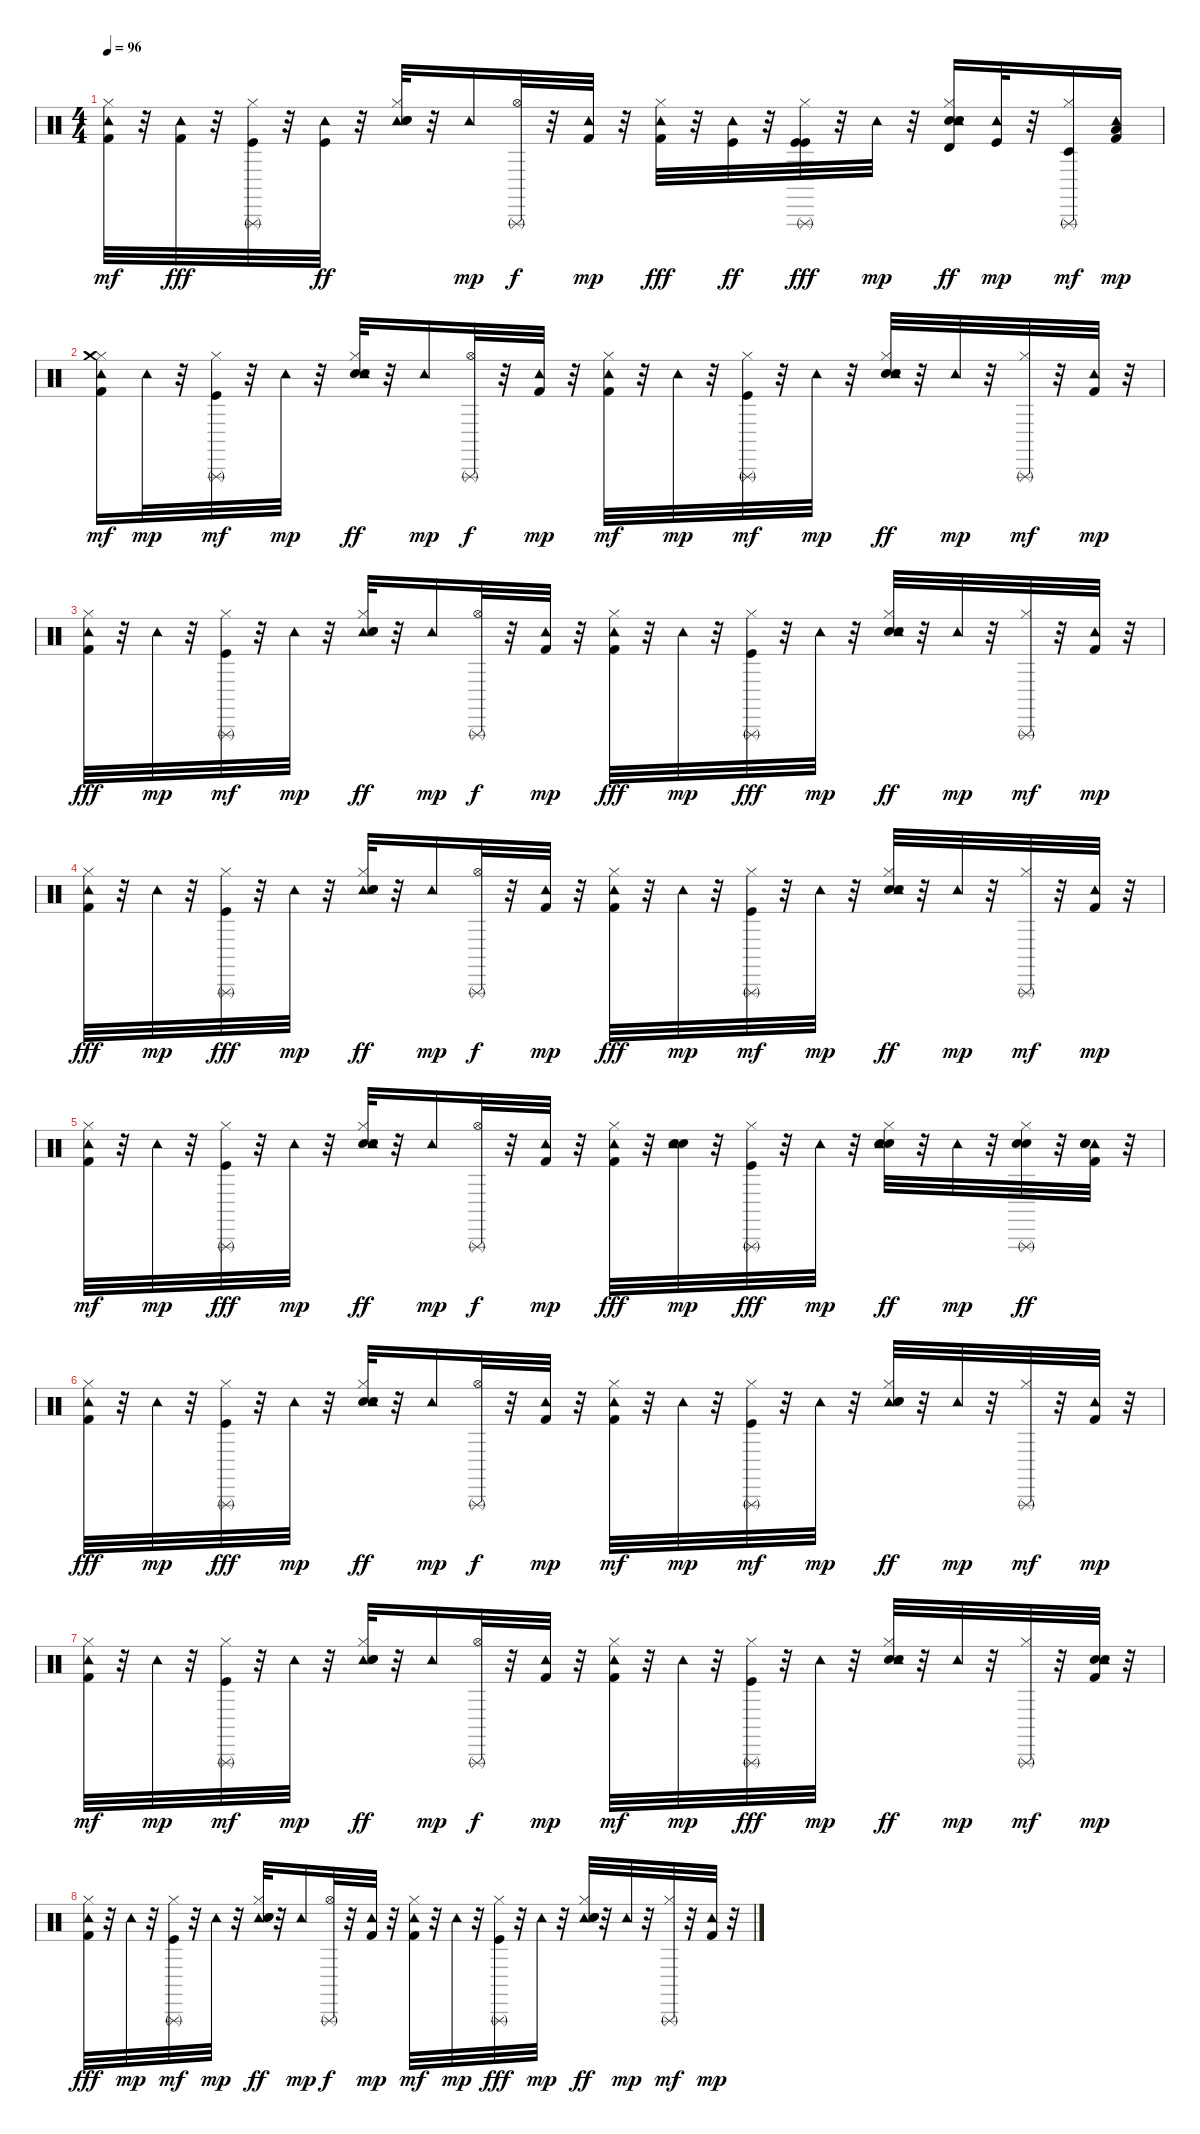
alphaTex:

\track "" {instrument percussion}
\staff {score}
\articulation defaults
\ts (4 4)
\tempo 96
\clef neutral
\ks c
("Kick (hit) 2" "Tambourine (hit)" "Hi-Hat (closed)").32{dy mf} r.32 ("Tambourine (hit)" "Kick (hit) 2").32{dy fff} r.32 ("Triangle (rnute)" "Hi-Hat (closed)" "Kick (hit)").32 r.32 ("Tambourine (hit)" "Kick (hit)").32{dy ff} r.32 ("Hi-Hat (closed)" "Tambourine (hit)" "Electric Snare (hit)" "Hand Clap (hit)").32 r.32 "Tambourine (hit)".16{dy mp} ("Triangle (rnute)" "Hi-Hat (open)").32{dy f} r.32 ("Tambourine (hit)" "Kick (hit) 2").32{dy mp} r.32 ("Tambourine (hit)" "Hi-Hat (closed)" "Kick (hit) 2").32{dy fff} r.32 ("Tambourine (hit)" "Kick (hit)").32{dy ff} r.32 ("Hi-Hat (closed)" "Kick (hit)" "Triangle (rnute)" "Kick (hit)").32{dy fff} r.32 "Tambourine (hit)".32{dy mp} r.32 ("Electric Snare (hit)" "Tambourine (hit)" "Timbale high (hit)" "Hi-Hat (closed)" "Hand Clap (hit)").16{dy ff} ("Kick (hit)" "Tambourine (hit)").32{dy mp} r.32 ("Triangle (rnute)" "Timbale low (hit)" "Hi-Hat (closed)").16{dy mf} ("Kick (hit) 2" "Low Tom (hit)" "Tambourine (hit)").16{dy mp} |
("Kick (hit) 2" "Tambourine (hit)" "Hi-Hat (closed)" "Crash medium (hit)").16{dy mf} "Tambourine (hit)".32{dy mp} r.32 ("Kick (hit)" "Triangle (rnute)" "Hi-Hat (closed)").32{dy mf} r.32 "Tambourine (hit)".32{dy mp} r.32 ("Electric Snare (hit)" "Hi-Hat (closed)" "Tambourine (hit)" "Hand Clap (hit)").32{dy ff} r.32 "Tambourine (hit)".16{dy mp} ("Triangle (rnute)" "Hi-Hat (open)").32{dy f} r.32 ("Tambourine (hit)" "Kick (hit) 2").32{dy mp} r.32 ("Kick (hit) 2" "Tambourine (hit)" "Hi-Hat (closed)").32{dy mf} r.32 "Tambourine (hit)".32{dy mp} r.32 ("Triangle (rnute)" "Kick (hit)" "Hi-Hat (closed)").32{dy mf} r.32 "Tambourine (hit)".32{dy mp} r.32 ("Electric Snare (hit)" "Tambourine (hit)" "Hi-Hat (closed)" "Hand Clap (hit)").32{dy ff} r.32 "Tambourine (hit)".32{dy mp} r.32 ("Triangle (rnute)" "Hi-Hat (closed)").32{dy mf} r.32 ("Kick (hit) 2" "Tambourine (hit)").32{dy mp} r.32 |
("Hi-Hat (closed)" "Tambourine (hit)" "Kick (hit) 2").32{dy fff} r.32 "Tambourine (hit)".32{dy mp} r.32 ("Kick (hit)" "Hi-Hat (closed)" "Triangle (rnute)").32{dy mf} r.32 "Tambourine (hit)".32{dy mp} r.32 ("Tambourine (hit)" "Electric Snare (hit)" "Hi-Hat (closed)" "Hand Clap (hit)").32{dy ff} r.32 "Tambourine (hit)".16{dy mp} ("Triangle (rnute)" "Hi-Hat (open)").32{dy f} r.32 ("Kick (hit) 2" "Tambourine (hit)").32{dy mp} r.32 ("Tambourine (hit)" "Hi-Hat (closed)" "Kick (hit) 2").32{dy fff} r.32 "Tambourine (hit)".32{dy mp} r.32 ("Triangle (rnute)" "Hi-Hat (closed)" "Kick (hit)").32{dy fff} r.32 "Tambourine (hit)".32{dy mp} r.32 ("Hi-Hat (closed)" "Electric Snare (hit)" "Tambourine (hit)" "Hand Clap (hit)").32{dy ff} r.32 "Tambourine (hit)".32{dy mp} r.32 ("Triangle (rnute)" "Hi-Hat (closed)").32{dy mf} r.32 ("Kick (hit) 2" "Tambourine (hit)").32{dy mp} r.32 |
("Tambourine (hit)" "Hi-Hat (closed)" "Kick (hit) 2").32{dy fff} r.32 "Tambourine (hit)".32{dy mp} r.32 ("Triangle (rnute)" "Hi-Hat (closed)" "Kick (hit)").32{dy fff} r.32 "Tambourine (hit)".32{dy mp} r.32 ("Tambourine (hit)" "Electric Snare (hit)" "Hi-Hat (closed)" "Hand Clap (hit)").32{dy ff} r.32 "Tambourine (hit)".16{dy mp} ("Hi-Hat (open)" "Triangle (rnute)").32{dy f} r.32 ("Kick (hit) 2" "Tambourine (hit)").32{dy mp} r.32 ("Tambourine (hit)" "Hi-Hat (closed)" "Kick (hit) 2").32{dy fff} r.32 "Tambourine (hit)".32{dy mp} r.32 ("Triangle (rnute)" "Kick (hit)" "Hi-Hat (closed)").32{dy mf} r.32 "Tambourine (hit)".32{dy mp} r.32 ("Electric Snare (hit)" "Tambourine (hit)" "Hi-Hat (closed)" "Hand Clap (hit)").32{dy ff} r.32 "Tambourine (hit)".32{dy mp} r.32 ("Hi-Hat (closed)" "Triangle (rnute)").32{dy mf} r.32 ("Kick (hit) 2" "Tambourine (hit)").32{dy mp} r.32 |
("Kick (hit) 2" "Tambourine (hit)" "Hi-Hat (closed)").32{dy mf} r.32 "Tambourine (hit)".32{dy mp} r.32 ("Triangle (rnute)" "Hi-Hat (closed)" "Kick (hit)").32{dy fff} r.32 "Tambourine (hit)".32{dy mp} r.32 ("Electric Snare (hit)" "Tambourine (hit)" "Hi-Hat (closed)" "Hand Clap (hit)").32{dy ff} r.32 "Tambourine (hit)".16{dy mp} ("Triangle (rnute)" "Hi-Hat (open)").32{dy f} r.32 ("Kick (hit) 2" "Tambourine (hit)").32{dy mp} r.32 ("Tambourine (hit)" "Kick (hit) 2" "Hi-Hat (closed)").32{dy fff} r.32 ("Hand Clap (hit)" "Snare (hit) 2" "Tambourine (hit)").32{dy mp} r.32 ("Triangle (rnute)" "Hi-Hat (closed)" "Kick (hit)").32{dy fff} r.32 "Tambourine (hit)".32{dy mp} r.32 ("Hi-Hat (closed)" "Electric Snare (hit)" "Tambourine (hit)" "Hand Clap (hit)").32{dy ff} r.32 "Tambourine (hit)".32{dy mp} r.32 ("Electric Snare (hit)" "Triangle (rnute)" "Hi-Hat (closed)" "Hand Clap (hit)").32{dy ff} r.32 ("Tambourine (hit)" "Electric Snare (hit)" "Hand Clap (hit)" "Kick (hit) 2").32 r.32 |
("Tambourine (hit)" "Hi-Hat (closed)" "Kick (hit) 2").32{dy fff} r.32 "Tambourine (hit)".32{dy mp} r.32 ("Hi-Hat (closed)" "Kick (hit)" "Triangle (rnute)").32{dy fff} r.32 "Tambourine (hit)".32{dy mp} r.32 ("Electric Snare (hit)" "Hi-Hat (closed)" "Tambourine (hit)" "Hand Clap (hit)").32{dy ff} r.32 "Tambourine (hit)".16{dy mp} ("Triangle (rnute)" "Hi-Hat (open)").32{dy f} r.32 ("Kick (hit) 2" "Tambourine (hit)").32{dy mp} r.32 ("Kick (hit) 2" "Hi-Hat (closed)" "Tambourine (hit)").32{dy mf} r.32 "Tambourine (hit)".32{dy mp} r.32 ("Kick (hit)" "Triangle (rnute)" "Hi-Hat (closed)").32{dy mf} r.32 "Tambourine (hit)".32{dy mp} r.32 ("Tambourine (hit)" "Hi-Hat (closed)" "Electric Snare (hit)" "Hand Clap (hit)").32{dy ff} r.32 "Tambourine (hit)".32{dy mp} r.32 ("Triangle (rnute)" "Hi-Hat (closed)").32{dy mf} r.32 ("Tambourine (hit)" "Kick (hit) 2").32{dy mp} r.32 |
("Kick (hit) 2" "Tambourine (hit)" "Hi-Hat (closed)").32{dy mf} r.32 "Tambourine (hit)".32{dy mp} r.32 ("Kick (hit)" "Hi-Hat (closed)" "Triangle (rnute)").32{dy mf} r.32 "Tambourine (hit)".32{dy mp} r.32 ("Tambourine (hit)" "Hi-Hat (closed)" "Electric Snare (hit)" "Hand Clap (hit)").32{dy ff} r.32 "Tambourine (hit)".16{dy mp} ("Hi-Hat (open)" "Triangle (rnute)").32{dy f} r.32 ("Tambourine (hit)" "Kick (hit) 2").32{dy mp} r.32 ("Hi-Hat (closed)" "Kick (hit) 2" "Tambourine (hit)").32{dy mf} r.32 "Tambourine (hit)".32{dy mp} r.32 ("Hi-Hat (closed)" "Kick (hit)" "Triangle (rnute)").32{dy fff} r.32 "Tambourine (hit)".32{dy mp} r.32 ("Electric Snare (hit)" "Hi-Hat (closed)" "Tambourine (hit)" "Hand Clap (hit)").32{dy ff} r.32 "Tambourine (hit)".32{dy mp} r.32 ("Triangle (rnute)" "Hi-Hat (closed)").32{dy mf} r.32 ("Hand Clap (hit)" "Electric Snare (hit)" "Tambourine (hit)" "Kick (hit) 2").32{dy mp} r.32 |
("Tambourine (hit)" "Kick (hit) 2" "Hi-Hat (closed)").32{dy fff} r.32 "Tambourine (hit)".32{dy mp} r.32 ("Kick (hit)" "Triangle (rnute)" "Hi-Hat (closed)").32{dy mf} r.32 "Tambourine (hit)".32{dy mp} r.32 ("Tambourine (hit)" "Electric Snare (hit)" "Hi-Hat (closed)" "Hand Clap (hit)").32{dy ff} r.32 "Tambourine (hit)".16{dy mp} ("Hi-Hat (open)" "Triangle (rnute)").32{dy f} r.32 ("Tambourine (hit)" "Kick (hit) 2").32{dy mp} r.32 ("Kick (hit) 2" "Hi-Hat (closed)" "Tambourine (hit)").32{dy mf} r.32 "Tambourine (hit)".32{dy mp} r.32 ("Triangle (rnute)" "Hi-Hat (closed)" "Kick (hit)").32{dy fff} r.32 "Tambourine (hit)".32{dy mp} r.32 ("Tambourine (hit)" "Hi-Hat (closed)" "Electric Snare (hit)" "Hand Clap (hit)").32{dy ff} r.32 "Tambourine (hit)".32{dy mp} r.32 ("Hi-Hat (closed)" "Triangle (rnute)").32{dy mf} r.32 ("Kick (hit) 2" "Tambourine (hit)").32{dy mp} r.32
